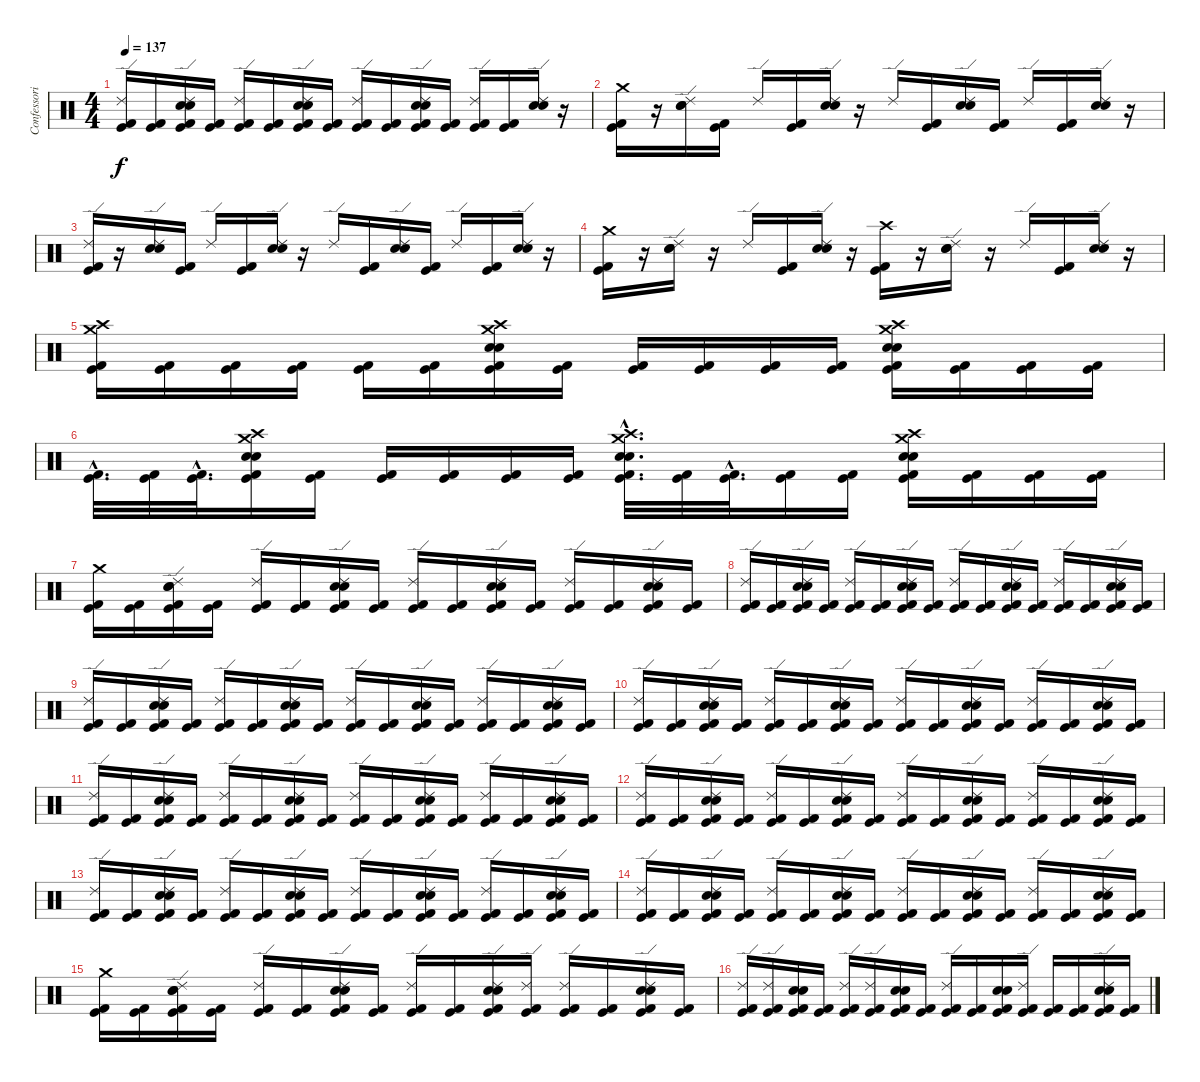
\track ("Confessori" "Confessori") {instrument percussion}
\staff {score}
\articulation defaults
\ts (4 4)
\tempo 137
\clef neutral
\ks c
("Ride (edge) 2" "Kick (hit) 2" "Kick (hit)").16{dy f} ("Kick (hit) 2" "Kick (hit)").16 ("Electric Snare (hit)" "Snare (hit) 2" "Ride (edge) 2" "Kick (hit) 2" "Kick (hit)").16 ("Kick (hit) 2" "Kick (hit)").16 ("Ride (edge) 2" "Kick (hit) 2" "Kick (hit)").16 ("Kick (hit) 2" "Kick (hit)").16 ("Electric Snare (hit)" "Snare (hit) 2" "Ride (edge) 2" "Kick (hit) 2" "Kick (hit)").16 ("Kick (hit) 2" "Kick (hit)").16 ("Ride (edge) 2" "Kick (hit) 2" "Kick (hit)").16 ("Kick (hit) 2" "Kick (hit)").16 ("Electric Snare (hit)" "Snare (hit) 2" "Ride (edge) 2" "Kick (hit) 2" "Kick (hit)").16 ("Kick (hit) 2" "Kick (hit)").16 ("Ride (edge) 2" "Kick (hit) 2" "Kick (hit)").16 ("Kick (hit) 2" "Kick (hit)").16 ("Ride (edge) 2" "Electric Snare (hit)" "Snare (hit) 2").16 r.16 |
("Crash medium (hit)" "Kick (hit) 2" "Kick (hit)").16 r.16 ("Electric Snare (hit)" "Snare (hit) 2" "Ride (edge) 2").16 ("Kick (hit) 2" "Kick (hit)").16 "Ride (edge) 2".16 ("Kick (hit) 2" "Kick (hit)").16 ("Electric Snare (hit)" "Snare (hit) 2" "Ride (edge) 2").16 r.16 "Ride (edge) 2".16 ("Kick (hit) 2" "Kick (hit)").16 ("Electric Snare (hit)" "Snare (hit) 2" "Ride (edge) 2").16 ("Kick (hit) 2" "Kick (hit)").16 "Ride (edge) 2".16 ("Kick (hit) 2" "Kick (hit)").16 ("Electric Snare (hit)" "Snare (hit) 2" "Ride (edge) 2").16 r.16 |
("Ride (edge) 2" "Kick (hit) 2" "Kick (hit)").16 r.16 ("Ride (edge) 2" "Electric Snare (hit)" "Snare (hit) 2").16 ("Kick (hit) 2" "Kick (hit)").16 "Ride (edge) 2".16 ("Kick (hit) 2" "Kick (hit)").16 ("Electric Snare (hit)" "Snare (hit) 2" "Ride (edge) 2").16 r.16 "Ride (edge) 2".16 ("Kick (hit) 2" "Kick (hit)").16 ("Electric Snare (hit)" "Snare (hit) 2" "Ride (edge) 2").16 ("Kick (hit) 2" "Kick (hit)").16 "Ride (edge) 2".16 ("Kick (hit) 2" "Kick (hit)").16 ("Electric Snare (hit)" "Snare (hit) 2" "Ride (edge) 2").16 r.16 |
("Kick (hit) 2" "Kick (hit)" "Crash medium (hit)").16 r.16 ("Electric Snare (hit)" "Snare (hit) 2" "Ride (edge) 2").16 r.16 "Ride (edge) 2".16 ("Kick (hit) 2" "Kick (hit)").16 ("Electric Snare (hit)" "Snare (hit) 2" "Ride (edge) 2").16 r.16 ("Crash high (hit)" "Kick (hit) 2" "Kick (hit)").16 r.16 ("Ride (edge) 2" "Electric Snare (hit)" "Snare (hit) 2").16 r.16 "Ride (edge) 2".16 ("Kick (hit)" "Kick (hit) 2").16 ("Ride (edge) 2" "Electric Snare (hit)" "Snare (hit) 2").16 r.16 |
("Crash high (hit)" "Crash medium (hit)" "Kick (hit) 2" "Kick (hit)").16 ("Kick (hit) 2" "Kick (hit)").16 ("Kick (hit) 2" "Kick (hit)").16 ("Kick (hit) 2" "Kick (hit)").16 ("Kick (hit) 2" "Kick (hit)").16 ("Kick (hit) 2" "Kick (hit)").16 ("Crash high (hit)" "Crash medium (hit)" "Electric Snare (hit)" "Snare (hit) 2" "Kick (hit) 2" "Kick (hit)").16 ("Kick (hit) 2" "Kick (hit)").16 ("Kick (hit) 2" "Kick (hit)").16 ("Kick (hit) 2" "Kick (hit)").16 ("Kick (hit) 2" "Kick (hit)").16 ("Kick (hit) 2" "Kick (hit)").16 ("Crash medium (hit)" "Crash high (hit)" "Electric Snare (hit)" "Snare (hit) 2" "Kick (hit) 2" "Kick (hit)").16 ("Kick (hit) 2" "Kick (hit)").16 ("Kick (hit) 2" "Kick (hit)").16 ("Kick (hit) 2" "Kick (hit)").16 |
("Kick (hit) 2"{hac} "Kick (hit)"{hac}).32{d} ("Kick (hit) 2" "Kick (hit)").32 ("Kick (hit) 2"{hac} "Kick (hit)"{hac}).32{d} ("Crash high (hit)" "Crash medium (hit)" "Electric Snare (hit)" "Snare (hit) 2" "Kick (hit) 2" "Kick (hit)").16 ("Kick (hit) 2" "Kick (hit)").16 ("Kick (hit) 2" "Kick (hit)").16 ("Kick (hit) 2" "Kick (hit)").16 ("Kick (hit) 2" "Kick (hit)").16 ("Kick (hit) 2" "Kick (hit)").16 ("Crash medium (hit)"{hac} "Crash high (hit)"{hac} "Electric Snare (hit)"{hac} "Snare (hit) 2"{hac} "Kick (hit) 2"{hac} "Kick (hit)"{hac}).32{d} ("Kick (hit) 2" "Kick (hit)").32 ("Kick (hit) 2"{hac} "Kick (hit)"{hac}).32{d} ("Kick (hit) 2" "Kick (hit)").16 ("Kick (hit) 2" "Kick (hit)").16 ("Crash medium (hit)" "Crash high (hit)" "Electric Snare (hit)" "Snare (hit) 2" "Kick (hit) 2" "Kick (hit)").16 ("Kick (hit) 2" "Kick (hit)").16 ("Kick (hit) 2" "Kick (hit)").16 ("Kick (hit) 2" "Kick (hit)").16 |
("Crash medium (hit)" "Kick (hit) 2" "Kick (hit)").16 ("Kick (hit) 2" "Kick (hit)").16 ("Electric Snare (hit)" "Snare (hit) 2" "Ride (edge) 2" "Kick (hit) 2" "Kick (hit)").16 ("Kick (hit) 2" "Kick (hit)").16 ("Ride (edge) 2" "Kick (hit) 2" "Kick (hit)").16 ("Kick (hit) 2" "Kick (hit)").16 ("Electric Snare (hit)" "Snare (hit) 2" "Ride (edge) 2" "Kick (hit) 2" "Kick (hit)").16 ("Kick (hit) 2" "Kick (hit)").16 ("Ride (edge) 2" "Kick (hit) 2" "Kick (hit)").16 ("Kick (hit) 2" "Kick (hit)").16 ("Electric Snare (hit)" "Snare (hit) 2" "Ride (edge) 2" "Kick (hit) 2" "Kick (hit)").16 ("Kick (hit) 2" "Kick (hit)").16 ("Ride (edge) 2" "Kick (hit) 2" "Kick (hit)").16 ("Kick (hit) 2" "Kick (hit)").16 ("Electric Snare (hit)" "Snare (hit) 2" "Ride (edge) 2" "Kick (hit) 2" "Kick (hit)").16 ("Kick (hit) 2" "Kick (hit)").16 |
("Ride (edge) 2" "Kick (hit) 2" "Kick (hit)").16 ("Kick (hit) 2" "Kick (hit)").16 ("Electric Snare (hit)" "Snare (hit) 2" "Ride (edge) 2" "Kick (hit) 2" "Kick (hit)").16 ("Kick (hit) 2" "Kick (hit)").16 ("Ride (edge) 2" "Kick (hit) 2" "Kick (hit)").16 ("Kick (hit) 2" "Kick (hit)").16 ("Electric Snare (hit)" "Snare (hit) 2" "Ride (edge) 2" "Kick (hit) 2" "Kick (hit)").16 ("Kick (hit) 2" "Kick (hit)").16 ("Ride (edge) 2" "Kick (hit) 2" "Kick (hit)").16 ("Kick (hit) 2" "Kick (hit)").16 ("Electric Snare (hit)" "Snare (hit) 2" "Ride (edge) 2" "Kick (hit) 2" "Kick (hit)").16 ("Kick (hit) 2" "Kick (hit)").16 ("Ride (edge) 2" "Kick (hit) 2" "Kick (hit)").16 ("Kick (hit) 2" "Kick (hit)").16 ("Electric Snare (hit)" "Snare (hit) 2" "Ride (edge) 2" "Kick (hit) 2" "Kick (hit)").16 ("Kick (hit) 2" "Kick (hit)").16 |
("Ride (edge) 2" "Kick (hit) 2" "Kick (hit)").16 ("Kick (hit) 2" "Kick (hit)").16 ("Electric Snare (hit)" "Snare (hit) 2" "Ride (edge) 2" "Kick (hit) 2" "Kick (hit)").16 ("Kick (hit) 2" "Kick (hit)").16 ("Ride (edge) 2" "Kick (hit) 2" "Kick (hit)").16 ("Kick (hit) 2" "Kick (hit)").16 ("Electric Snare (hit)" "Snare (hit) 2" "Ride (edge) 2" "Kick (hit) 2" "Kick (hit)").16 ("Kick (hit) 2" "Kick (hit)").16 ("Ride (edge) 2" "Kick (hit) 2" "Kick (hit)").16 ("Kick (hit) 2" "Kick (hit)").16 ("Electric Snare (hit)" "Snare (hit) 2" "Ride (edge) 2" "Kick (hit) 2" "Kick (hit)").16 ("Kick (hit) 2" "Kick (hit)").16 ("Ride (edge) 2" "Kick (hit) 2" "Kick (hit)").16 ("Kick (hit) 2" "Kick (hit)").16 ("Electric Snare (hit)" "Snare (hit) 2" "Ride (edge) 2" "Kick (hit) 2" "Kick (hit)").16 ("Kick (hit) 2" "Kick (hit)").16 |
("Ride (edge) 2" "Kick (hit) 2" "Kick (hit)").16 ("Kick (hit) 2" "Kick (hit)").16 ("Electric Snare (hit)" "Snare (hit) 2" "Ride (edge) 2" "Kick (hit) 2" "Kick (hit)").16 ("Kick (hit) 2" "Kick (hit)").16 ("Ride (edge) 2" "Kick (hit) 2" "Kick (hit)").16 ("Kick (hit) 2" "Kick (hit)").16 ("Electric Snare (hit)" "Snare (hit) 2" "Ride (edge) 2" "Kick (hit) 2" "Kick (hit)").16 ("Kick (hit) 2" "Kick (hit)").16 ("Ride (edge) 2" "Kick (hit) 2" "Kick (hit)").16 ("Kick (hit) 2" "Kick (hit)").16 ("Electric Snare (hit)" "Snare (hit) 2" "Ride (edge) 2" "Kick (hit) 2" "Kick (hit)").16 ("Kick (hit) 2" "Kick (hit)").16 ("Ride (edge) 2" "Kick (hit) 2" "Kick (hit)").16 ("Kick (hit) 2" "Kick (hit)").16 ("Electric Snare (hit)" "Snare (hit) 2" "Ride (edge) 2" "Kick (hit) 2" "Kick (hit)").16 ("Kick (hit) 2" "Kick (hit)").16 |
("Ride (edge) 2" "Kick (hit) 2" "Kick (hit)").16 ("Kick (hit) 2" "Kick (hit)").16 ("Electric Snare (hit)" "Snare (hit) 2" "Ride (edge) 2" "Kick (hit) 2" "Kick (hit)").16 ("Kick (hit) 2" "Kick (hit)").16 ("Ride (edge) 2" "Kick (hit) 2" "Kick (hit)").16 ("Kick (hit) 2" "Kick (hit)").16 ("Electric Snare (hit)" "Snare (hit) 2" "Ride (edge) 2" "Kick (hit) 2" "Kick (hit)").16 ("Kick (hit) 2" "Kick (hit)").16 ("Ride (edge) 2" "Kick (hit) 2" "Kick (hit)").16 ("Kick (hit) 2" "Kick (hit)").16 ("Electric Snare (hit)" "Snare (hit) 2" "Ride (edge) 2" "Kick (hit) 2" "Kick (hit)").16 ("Kick (hit) 2" "Kick (hit)").16 ("Ride (edge) 2" "Kick (hit) 2" "Kick (hit)").16 ("Kick (hit) 2" "Kick (hit)").16 ("Electric Snare (hit)" "Snare (hit) 2" "Ride (edge) 2" "Kick (hit) 2" "Kick (hit)").16 ("Kick (hit) 2" "Kick (hit)").16 |
("Ride (edge) 2" "Kick (hit) 2" "Kick (hit)").16 ("Kick (hit) 2" "Kick (hit)").16 ("Electric Snare (hit)" "Snare (hit) 2" "Ride (edge) 2" "Kick (hit) 2" "Kick (hit)").16 ("Kick (hit) 2" "Kick (hit)").16 ("Ride (edge) 2" "Kick (hit) 2" "Kick (hit)").16 ("Kick (hit) 2" "Kick (hit)").16 ("Electric Snare (hit)" "Snare (hit) 2" "Ride (edge) 2" "Kick (hit) 2" "Kick (hit)").16 ("Kick (hit) 2" "Kick (hit)").16 ("Ride (edge) 2" "Kick (hit) 2" "Kick (hit)").16 ("Kick (hit) 2" "Kick (hit)").16 ("Electric Snare (hit)" "Snare (hit) 2" "Ride (edge) 2" "Kick (hit) 2" "Kick (hit)").16 ("Kick (hit) 2" "Kick (hit)").16 ("Ride (edge) 2" "Kick (hit) 2" "Kick (hit)").16 ("Kick (hit) 2" "Kick (hit)").16 ("Electric Snare (hit)" "Snare (hit) 2" "Ride (edge) 2" "Kick (hit) 2" "Kick (hit)").16 ("Kick (hit) 2" "Kick (hit)").16 |
("Ride (edge) 2" "Kick (hit) 2" "Kick (hit)").16 ("Kick (hit) 2" "Kick (hit)").16 ("Electric Snare (hit)" "Snare (hit) 2" "Ride (edge) 2" "Kick (hit) 2" "Kick (hit)").16 ("Kick (hit) 2" "Kick (hit)").16 ("Ride (edge) 2" "Kick (hit) 2" "Kick (hit)").16 ("Kick (hit) 2" "Kick (hit)").16 ("Electric Snare (hit)" "Snare (hit) 2" "Ride (edge) 2" "Kick (hit) 2" "Kick (hit)").16 ("Kick (hit) 2" "Kick (hit)").16 ("Ride (edge) 2" "Kick (hit) 2" "Kick (hit)").16 ("Kick (hit) 2" "Kick (hit)").16 ("Electric Snare (hit)" "Snare (hit) 2" "Ride (edge) 2" "Kick (hit) 2" "Kick (hit)").16 ("Kick (hit) 2" "Kick (hit)").16 ("Ride (edge) 2" "Kick (hit) 2" "Kick (hit)").16 ("Kick (hit) 2" "Kick (hit)").16 ("Electric Snare (hit)" "Snare (hit) 2" "Ride (edge) 2" "Kick (hit) 2" "Kick (hit)").16 ("Kick (hit) 2" "Kick (hit)").16 |
("Ride (edge) 2" "Kick (hit) 2" "Kick (hit)").16 ("Kick (hit) 2" "Kick (hit)").16 ("Electric Snare (hit)" "Snare (hit) 2" "Ride (edge) 2" "Kick (hit) 2" "Kick (hit)").16 ("Kick (hit) 2" "Kick (hit)").16 ("Ride (edge) 2" "Kick (hit) 2" "Kick (hit)").16 ("Kick (hit) 2" "Kick (hit)").16 ("Electric Snare (hit)" "Snare (hit) 2" "Ride (edge) 2" "Kick (hit) 2" "Kick (hit)").16 ("Kick (hit) 2" "Kick (hit)").16 ("Ride (edge) 2" "Kick (hit) 2" "Kick (hit)").16 ("Kick (hit) 2" "Kick (hit)").16 ("Electric Snare (hit)" "Snare (hit) 2" "Ride (edge) 2" "Kick (hit) 2" "Kick (hit)").16 ("Kick (hit) 2" "Kick (hit)").16 ("Ride (edge) 2" "Kick (hit) 2" "Kick (hit)").16 ("Kick (hit) 2" "Kick (hit)").16 ("Electric Snare (hit)" "Snare (hit) 2" "Ride (edge) 2" "Kick (hit) 2" "Kick (hit)").16 ("Kick (hit) 2" "Kick (hit)").16 |
("Crash medium (hit)" "Kick (hit) 2" "Kick (hit)").16 ("Kick (hit) 2" "Kick (hit)").16 ("Electric Snare (hit)" "Snare (hit) 2" "Ride (edge) 2" "Kick (hit) 2" "Kick (hit)").16 ("Kick (hit) 2" "Kick (hit)").16 ("Ride (edge) 2" "Kick (hit) 2" "Kick (hit)").16 ("Kick (hit) 2" "Kick (hit)").16 ("Electric Snare (hit)" "Snare (hit) 2" "Ride (edge) 2" "Kick (hit) 2" "Kick (hit)").16 ("Kick (hit) 2" "Kick (hit)").16 ("Ride (edge) 2" "Kick (hit) 2" "Kick (hit)").16 ("Kick (hit) 2" "Kick (hit)").16 ("Electric Snare (hit)" "Snare (hit) 2" "Ride (edge) 2" "Kick (hit) 2" "Kick (hit)").16 ("Ride (edge) 2" "Kick (hit) 2" "Kick (hit)").16 ("Ride (edge) 2" "Kick (hit) 2" "Kick (hit)").16 ("Kick (hit) 2" "Kick (hit)").16 ("Electric Snare (hit)" "Snare (hit) 2" "Ride (edge) 2" "Kick (hit) 2" "Kick (hit)").16 ("Kick (hit) 2" "Kick (hit)").16 |
("Ride (edge) 2" "Kick (hit) 2" "Kick (hit)").16 ("Ride (edge) 2" "Kick (hit) 2" "Kick (hit)").16 ("Electric Snare (hit)" "Snare (hit) 2" "Kick (hit) 2" "Kick (hit)").16 ("Kick (hit) 2" "Kick (hit)").16 ("Ride (edge) 2" "Kick (hit) 2" "Kick (hit)").16 ("Ride (edge) 2" "Kick (hit) 2" "Kick (hit)").16 ("Electric Snare (hit)" "Snare (hit) 2" "Kick (hit) 2" "Kick (hit)").16 ("Kick (hit) 2" "Kick (hit)").16 ("Ride (edge) 2" "Kick (hit) 2" "Kick (hit)").16 ("Kick (hit) 2" "Kick (hit)").16 ("Electric Snare (hit)" "Snare (hit) 2" "Kick (hit) 2" "Kick (hit)").16 ("Ride (edge) 2" "Kick (hit) 2" "Kick (hit)").16 ("Kick (hit) 2" "Kick (hit)").16 ("Kick (hit) 2" "Kick (hit)").16 ("Electric Snare (hit)" "Snare (hit) 2" "Ride (edge) 2" "Kick (hit) 2" "Kick (hit)").16 ("Kick (hit) 2" "Kick (hit)").16
